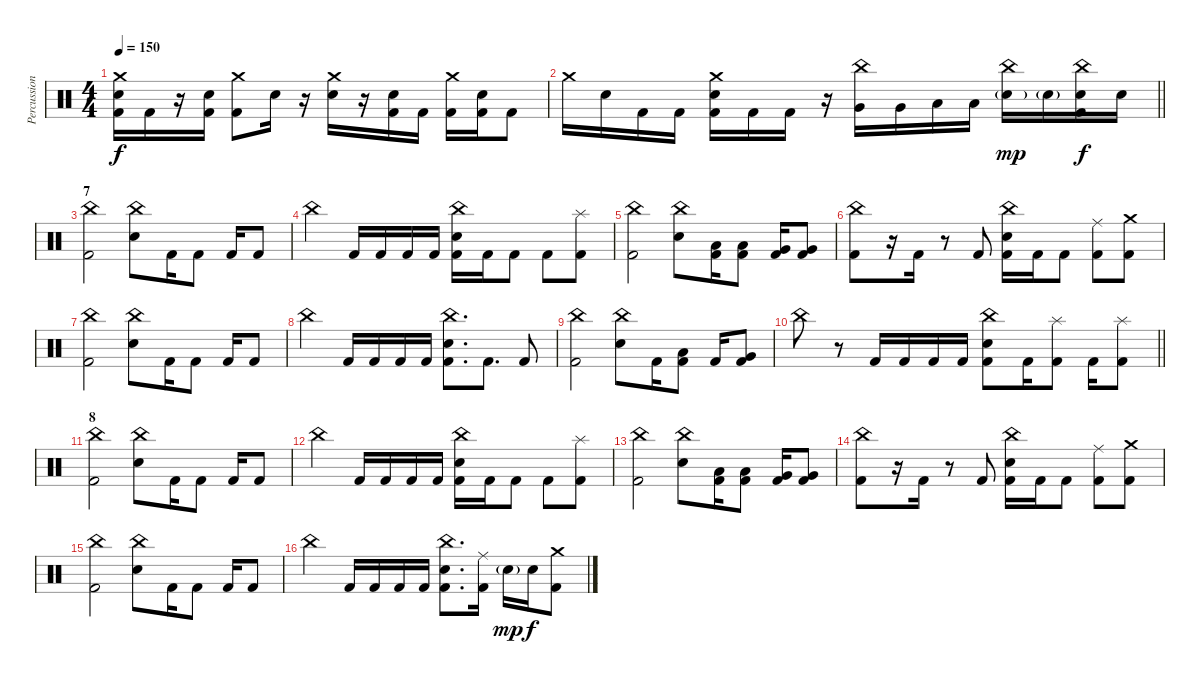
\track ("Percussioni" "Percussion") {instrument percussion}
\staff {score}
\articulation defaults
\ts (4 4)
\tempo 150
\clef neutral
\ks c
("Crash medium (hit)" "Electric Snare (hit)" "Kick (hit) 2").16{dy f} "Kick (hit) 2".16 r.16 ("Electric Snare (hit)" "Kick (hit) 2").16 ("Crash medium (hit)" "Kick (hit) 2").8 "Electric Snare (hit)".16 r.16 ("Crash medium (hit)" "Electric Snare (hit)").16 r.16 ("Electric Snare (hit)" "Kick (hit) 2").16 "Kick (hit) 2".16 ("Crash medium (hit)" "Kick (hit) 2").16 ("Electric Snare (hit)" "Kick (hit) 2").16 "Kick (hit) 2".8 |
\barLineRight lightlight "Crash medium (hit)".16 "Electric Snare (hit)".16 "Kick (hit) 2".16 "Kick (hit) 2".16
("Crash medium (hit)" "Electric Snare (hit)" "Kick (hit) 2").16 "Kick (hit) 2".16 "Kick (hit) 2".16 r.16 ("Very Low Tom (hit)" "China (hit)").16 "Very Low Tom (hit)".16 "Low Tom (hit)".16 "Low Tom (hit)".16 ("Electric Snare (hit)"{g} "China (hit)").16{dy mp} "Electric Snare (hit)"{g}.16 ("Electric Snare (hit)" "Kick (hit) 2" "China (hit)").16{dy f} "Electric Snare (hit)".16 |
\section ("" "7")
("China (hit)" "Kick (hit) 2").2 ("China (hit)" "Electric Snare (hit)").8 "Kick (hit) 2".16 "Kick (hit) 2".8 "Kick (hit) 2".16 "Kick (hit) 2".8 |
"China (hit)".4 "Kick (hit) 2".16 "Kick (hit) 2".16 "Kick (hit) 2".16 "Kick (hit) 2".16 ("China (hit)" "Electric Snare (hit)" "Kick (hit) 2").16 "Kick (hit) 2".16 "Kick (hit) 2".8 "Kick (hit) 2".8 ("Splash (hit)" "Kick (hit) 2").8 |
("China (hit)" "Kick (hit) 2").2 ("Electric Snare (hit)" "China (hit)").8 ("Low Tom (hit)" "Kick (hit) 2").16 ("Low Tom (hit)" "Kick (hit) 2").8 ("Very Low Tom (hit)" "Kick (hit) 2").16 ("Very Low Tom (hit)" "Kick (hit) 2").8 |
("China (hit)" "Kick (hit) 2").8 r.16 "Kick (hit) 2".16 r.8 "Kick (hit) 2".8 ("China (hit)" "Electric Snare (hit)" "Kick (hit) 2").16 "Kick (hit) 2".16 "Kick (hit) 2".8 ("Ride (middle)" "Kick (hit) 2").8 ("Crash medium (hit)" "Kick (hit) 2").8 |
("China (hit)" "Kick (hit) 2").2 ("China (hit)" "Electric Snare (hit)").8 "Kick (hit) 2".16 "Kick (hit) 2".8 "Kick (hit) 2".16 "Kick (hit) 2".8 |
"China (hit)".4 "Kick (hit) 2".16 "Kick (hit) 2".16 "Kick (hit) 2".16 "Kick (hit) 2".16 ("China (hit)" "Electric Snare (hit)" "Kick (hit) 2").8{d} "Kick (hit) 2".8{d} "Kick (hit) 2".8 |
("China (hit)" "Kick (hit) 2").2 ("Electric Snare (hit)" "China (hit)").8 "Kick (hit) 2".16 ("Low Tom (hit)" "Kick (hit) 2").8 "Kick (hit) 2".16 ("Very Low Tom (hit)" "Kick (hit) 2").8 |
\barLineRight lightlight "China (hit)".8
r.8 "Kick (hit) 2".16 "Kick (hit) 2".16 "Kick (hit) 2".16 "Kick (hit) 2".16 ("China (hit)" "Electric Snare (hit)" "Kick (hit) 2").8 "Kick (hit) 2".16 ("Splash (hit)" "Kick (hit) 2").8 "Kick (hit) 2".16 ("Splash (hit)" "Kick (hit) 2").8 |
\section ("" "8")
("China (hit)" "Kick (hit) 2").2 ("China (hit)" "Electric Snare (hit)").8 "Kick (hit) 2".16 "Kick (hit) 2".8 "Kick (hit) 2".16 "Kick (hit) 2".8 |
"China (hit)".4 "Kick (hit) 2".16 "Kick (hit) 2".16 "Kick (hit) 2".16 "Kick (hit) 2".16 ("China (hit)" "Electric Snare (hit)" "Kick (hit) 2").16 "Kick (hit) 2".16 "Kick (hit) 2".8 "Kick (hit) 2".8 ("Splash (hit)" "Kick (hit) 2").8 |
("China (hit)" "Kick (hit) 2").2 ("Electric Snare (hit)" "China (hit)").8 ("Low Tom (hit)" "Kick (hit) 2").16 ("Low Tom (hit)" "Kick (hit) 2").8 ("Very Low Tom (hit)" "Kick (hit) 2").16 ("Very Low Tom (hit)" "Kick (hit) 2").8 |
("China (hit)" "Kick (hit) 2").8 r.16 "Kick (hit) 2".16 r.8 "Kick (hit) 2".8 ("China (hit)" "Electric Snare (hit)" "Kick (hit) 2").16 "Kick (hit) 2".16 "Kick (hit) 2".8 ("Ride (middle)" "Kick (hit) 2").8 ("Crash medium (hit)" "Kick (hit) 2").8 |
("China (hit)" "Kick (hit) 2").2 ("China (hit)" "Electric Snare (hit)").8 "Kick (hit) 2".16 "Kick (hit) 2".8 "Kick (hit) 2".16 "Kick (hit) 2".8 |
"China (hit)".4 "Kick (hit) 2".16 "Kick (hit) 2".16 "Kick (hit) 2".16 "Kick (hit) 2".16 ("China (hit)" "Electric Snare (hit)" "Kick (hit) 2").8{d} ("Ride (middle)" "Kick (hit) 2").16 "Electric Snare (hit)"{g}.16{dy mp} "Electric Snare (hit)".16{dy f} ("Crash medium (hit)" "Kick (hit) 2").8
